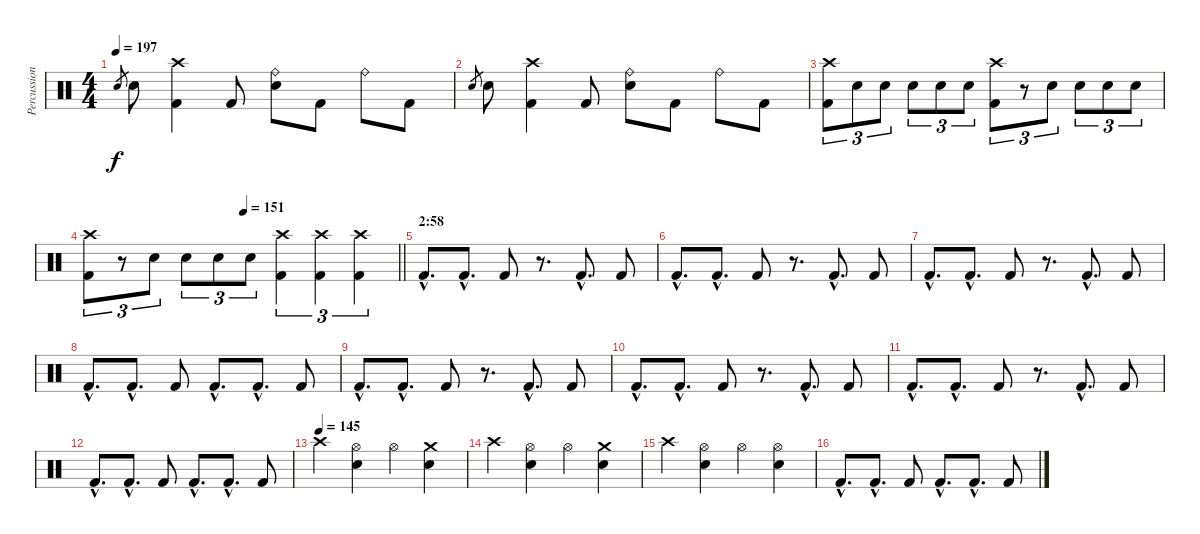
\track ("Percussion" "Percussion") {instrument percussion}
\staff {score}
\articulation defaults
\ts (4 4)
\tempo 197
\clef neutral
\ks c "Electric Snare (hit)".8{gr dy f} "Electric Snare (hit)".8
("Crash high (hit)" "Kick (hit) 2").4 "Kick (hit) 2".8 ("Electric Snare (hit)" "Ride (bell)").8 "Kick (hit) 2".8 "Ride (bell)".8 "Kick (hit) 2".8 |
"Electric Snare (hit)".8{gr} "Electric Snare (hit)".8 ("Crash high (hit)" "Kick (hit) 2").4 "Kick (hit) 2".8 ("Electric Snare (hit)" "Ride (bell)").8 "Kick (hit) 2".8 "Ride (bell)".8 "Kick (hit) 2".8 |
("Crash high (hit)" "Kick (hit) 2").8{tu (3 2)} "Electric Snare (hit)".8{tu (3 2)} "Electric Snare (hit)".8{tu (3 2)} "Electric Snare (hit)".8{tu (3 2)} "Electric Snare (hit)".8{tu (3 2)} "Electric Snare (hit)".8{tu (3 2)} ("Crash high (hit)" "Kick (hit) 2").8{tu (3 2)} r.8{tu (3 2)} "Electric Snare (hit)".8{tu (3 2)} "Electric Snare (hit)".8{tu (3 2)} "Electric Snare (hit)".8{tu (3 2)} "Electric Snare (hit)".8{tu (3 2)} |
\tempo (151 0.5)
\barLineRight lightlight
("Crash high (hit)" "Kick (hit) 2").8{tu (3 2)} r.8{tu (3 2)} "Electric Snare (hit)".8{tu (3 2)} "Electric Snare (hit)".8{tu (3 2)} "Electric Snare (hit)".8{tu (3 2)} "Electric Snare (hit)".8{tu (3 2)} ("Crash high (hit)" "Kick (hit) 2").4{tu (3 2)} ("Crash high (hit)" "Kick (hit) 2").4{tu (3 2)} ("Crash high (hit)" "Kick (hit) 2").4{tu (3 2)} |
\section ("" "2:58")
"Kick (hit) 2"{hac}.8{d} "Kick (hit) 2"{hac}.8{d} "Kick (hit) 2".8 r.8{d} "Kick (hit) 2"{hac}.8{d} "Kick (hit) 2".8 |
"Kick (hit) 2"{hac}.8{d} "Kick (hit) 2"{hac}.8{d} "Kick (hit) 2".8 r.8{d} "Kick (hit) 2"{hac}.8{d} "Kick (hit) 2".8 |
"Kick (hit) 2"{hac}.8{d} "Kick (hit) 2"{hac}.8{d} "Kick (hit) 2".8 r.8{d} "Kick (hit) 2"{hac}.8{d} "Kick (hit) 2".8 |
"Kick (hit) 2"{hac}.8{d} "Kick (hit) 2"{hac}.8{d} "Kick (hit) 2".8 "Kick (hit) 2"{hac}.8{d} "Kick (hit) 2"{hac}.8{d} "Kick (hit) 2".8 |
"Kick (hit) 2"{hac}.8{d} "Kick (hit) 2"{hac}.8{d} "Kick (hit) 2".8 r.8{d} "Kick (hit) 2"{hac}.8{d} "Kick (hit) 2".8 |
"Kick (hit) 2"{hac}.8{d} "Kick (hit) 2"{hac}.8{d} "Kick (hit) 2".8 r.8{d} "Kick (hit) 2"{hac}.8{d} "Kick (hit) 2".8 |
"Kick (hit) 2"{hac}.8{d} "Kick (hit) 2"{hac}.8{d} "Kick (hit) 2".8 r.8{d} "Kick (hit) 2"{hac}.8{d} "Kick (hit) 2".8 |
"Kick (hit) 2"{hac}.8{d} "Kick (hit) 2"{hac}.8{d} "Kick (hit) 2".8 "Kick (hit) 2"{hac}.8{d} "Kick (hit) 2"{hac}.8{d} "Kick (hit) 2".8 |
\tempo (145)
"Crash high (hit)".4 ("Hi-Hat (open)" "Electric Snare (hit)").4 "Hi-Hat (open)".4 ("Crash medium (hit)" "Electric Snare (hit)").4 |
"Crash high (hit)".4 ("Hi-Hat (open)" "Electric Snare (hit)").4 "Hi-Hat (open)".4 ("Crash medium (hit)" "Electric Snare (hit)").4 |
"Crash high (hit)".4 ("Hi-Hat (open)" "Electric Snare (hit)").4 "Hi-Hat (open)".4 ("Hi-Hat (open)" "Electric Snare (hit)").4 |
"Kick (hit) 2"{hac}.8{d} "Kick (hit) 2"{hac}.8{d} "Kick (hit) 2".8 "Kick (hit) 2"{hac}.8{d} "Kick (hit) 2"{hac}.8{d} "Kick (hit) 2".8
